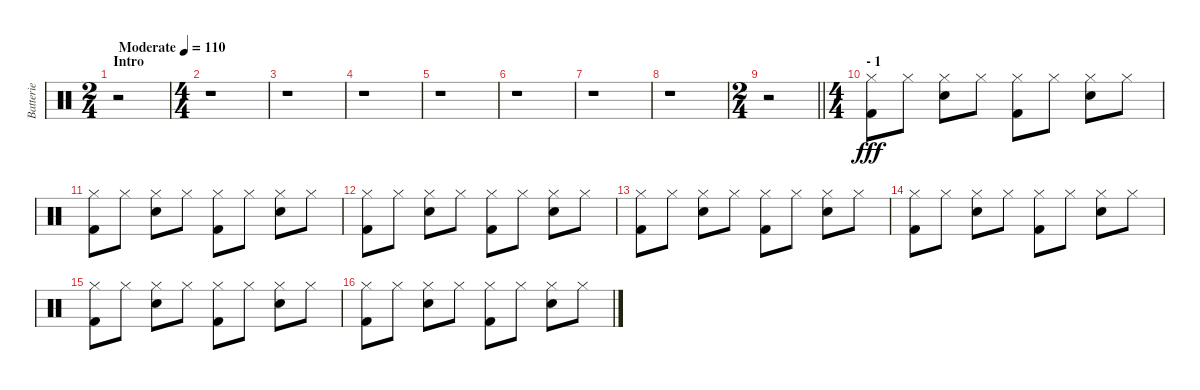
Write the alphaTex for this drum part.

\track ("Batterie" "Batterie") {instrument percussion}
\staff {score}
\articulation defaults
\ts (2 4)
\section ("" "Intro")
\tempo (110 "Moderate")
\clef neutral
\ks c
r.2{dy fff} |
\ts (4 4)
r.1 |
r.1 |
r.1 |
r.1 |
r.1 |
r.1 |
r.1 |
\ts (2 4)
\barLineRight lightlight
r.2 |
\ts (4 4)
\section ("" "- 1")
("Hi-Hat (closed)" "Kick (hit) 2").8 "Hi-Hat (closed)".8 ("Hi-Hat (closed)" "Snare (hit) 2").8 "Hi-Hat (closed)".8 ("Hi-Hat (closed)" "Kick (hit) 2").8 "Hi-Hat (closed)".8 ("Hi-Hat (closed)" "Snare (hit) 2").8 "Hi-Hat (closed)".8 |
("Hi-Hat (closed)" "Kick (hit) 2").8 "Hi-Hat (closed)".8 ("Hi-Hat (closed)" "Snare (hit) 2").8 "Hi-Hat (closed)".8 ("Hi-Hat (closed)" "Kick (hit) 2").8 "Hi-Hat (closed)".8 ("Hi-Hat (closed)" "Snare (hit) 2").8 "Hi-Hat (closed)".8 |
("Hi-Hat (closed)" "Kick (hit) 2").8 "Hi-Hat (closed)".8 ("Hi-Hat (closed)" "Snare (hit) 2").8 "Hi-Hat (closed)".8 ("Hi-Hat (closed)" "Kick (hit) 2").8 "Hi-Hat (closed)".8 ("Hi-Hat (closed)" "Snare (hit) 2").8 "Hi-Hat (closed)".8 |
("Hi-Hat (closed)" "Kick (hit) 2").8 "Hi-Hat (closed)".8 ("Hi-Hat (closed)" "Snare (hit) 2").8 "Hi-Hat (closed)".8 ("Hi-Hat (closed)" "Kick (hit) 2").8 "Hi-Hat (closed)".8 ("Hi-Hat (closed)" "Snare (hit) 2").8 "Hi-Hat (closed)".8 |
("Hi-Hat (closed)" "Kick (hit) 2").8 "Hi-Hat (closed)".8 ("Hi-Hat (closed)" "Snare (hit) 2").8 "Hi-Hat (closed)".8 ("Hi-Hat (closed)" "Kick (hit) 2").8 "Hi-Hat (closed)".8 ("Hi-Hat (closed)" "Snare (hit) 2").8 "Hi-Hat (closed)".8 |
("Hi-Hat (closed)" "Kick (hit) 2").8 "Hi-Hat (closed)".8 ("Hi-Hat (closed)" "Snare (hit) 2").8 "Hi-Hat (closed)".8 ("Hi-Hat (closed)" "Kick (hit) 2").8 "Hi-Hat (closed)".8 ("Hi-Hat (closed)" "Snare (hit) 2").8 "Hi-Hat (closed)".8 |
("Hi-Hat (closed)" "Kick (hit) 2").8 "Hi-Hat (closed)".8 ("Hi-Hat (closed)" "Snare (hit) 2").8 "Hi-Hat (closed)".8 ("Hi-Hat (closed)" "Kick (hit) 2").8 "Hi-Hat (closed)".8 ("Hi-Hat (closed)" "Snare (hit) 2").8 "Hi-Hat (closed)".8
